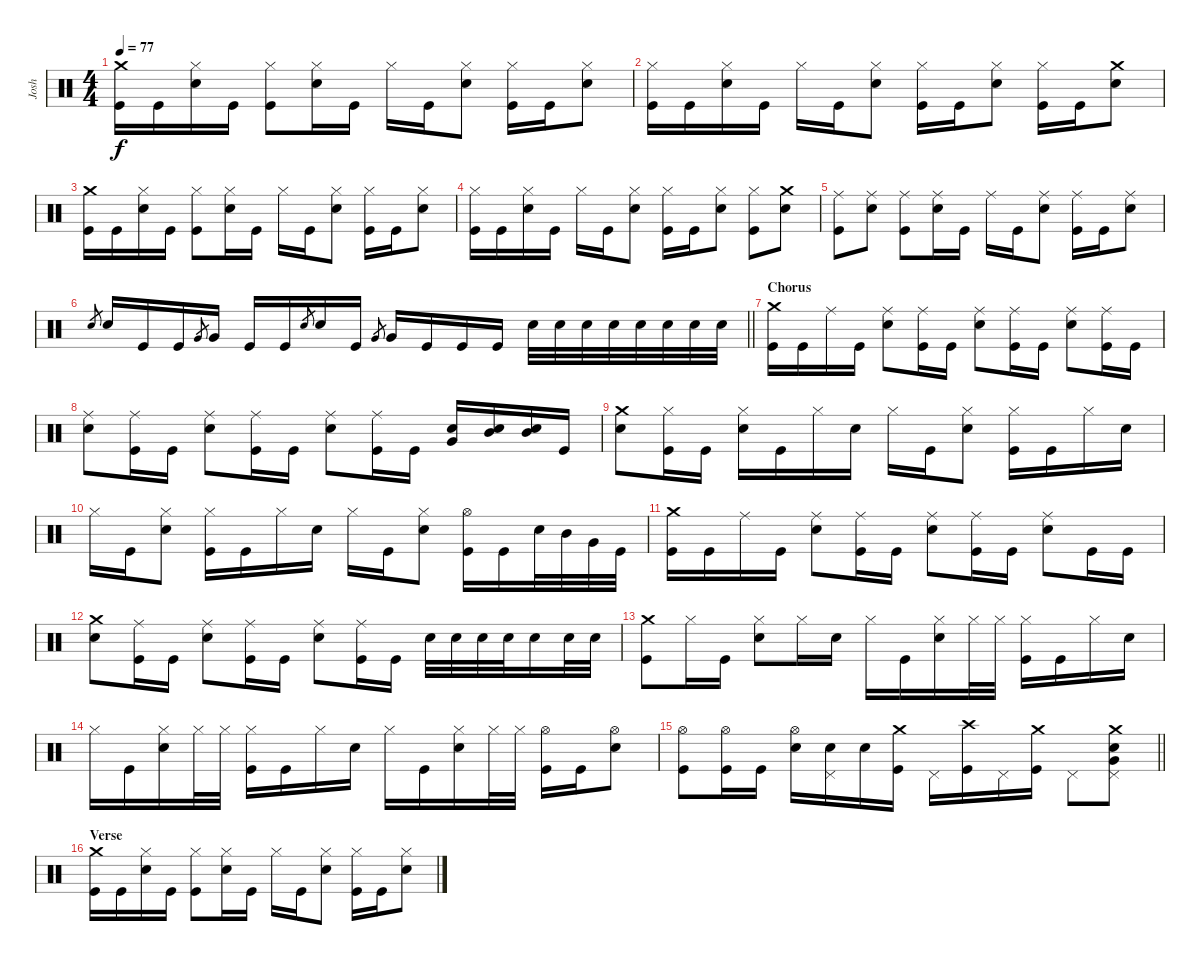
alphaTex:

\track ("Josh" "Josh") {instrument percussion}
\staff {score}
\articulation defaults
\ts (4 4)
\tempo 77
\clef neutral
\ks c
("Crash medium (hit)" "Kick (hit)").16{dy f} "Kick (hit)".16 ("Hi-Hat (closed)" "Snare (hit) 2").16 "Kick (hit)".16 ("Hi-Hat (closed)" "Kick (hit)").8 ("Hi-Hat (closed)" "Snare (hit) 2").16 "Kick (hit)".16 "Hi-Hat (closed)".16 "Kick (hit)".16 ("Hi-Hat (closed)" "Snare (hit) 2").8 ("Hi-Hat (closed)" "Kick (hit)").16 "Kick (hit)".16 ("Hi-Hat (closed)" "Snare (hit) 2").8 |
("Hi-Hat (closed)" "Kick (hit)").16 "Kick (hit)".16 ("Hi-Hat (closed)" "Snare (hit) 2").16 "Kick (hit)".16 "Hi-Hat (closed)".16 "Kick (hit)".16 ("Hi-Hat (closed)" "Snare (hit) 2").8 ("Hi-Hat (closed)" "Kick (hit)").16 "Kick (hit)".16 ("Hi-Hat (closed)" "Snare (hit) 2").8 ("Hi-Hat (closed)" "Kick (hit)").16 "Kick (hit)".16 ("Crash medium (hit)" "Snare (hit) 2").8 |
("Crash medium (hit)" "Kick (hit)").16 "Kick (hit)".16 ("Hi-Hat (closed)" "Snare (hit) 2").16 "Kick (hit)".16 ("Hi-Hat (closed)" "Kick (hit)").8 ("Hi-Hat (closed)" "Snare (hit) 2").16 "Kick (hit)".16 "Hi-Hat (closed)".16 "Kick (hit)".16 ("Hi-Hat (closed)" "Snare (hit) 2").8 ("Hi-Hat (closed)" "Kick (hit)").16 "Kick (hit)".16 ("Hi-Hat (closed)" "Snare (hit) 2").8 |
("Hi-Hat (closed)" "Kick (hit)").16 "Kick (hit)".16 ("Hi-Hat (closed)" "Snare (hit) 2").16 "Kick (hit)".16 "Hi-Hat (closed)".16 "Kick (hit)".16 ("Hi-Hat (closed)" "Snare (hit) 2").8 ("Hi-Hat (closed)" "Kick (hit)").16 "Kick (hit)".16 ("Hi-Hat (closed)" "Snare (hit) 2").8 ("Hi-Hat (closed)" "Kick (hit)").8 ("Crash medium (hit)" "Snare (hit) 2").8 |
("Ride (middle)" "Kick (hit)").8 ("Ride (middle)" "Snare (hit) 2").8 ("Ride (middle)" "Kick (hit)").8 ("Ride (middle)" "Snare (hit) 2").16 "Kick (hit)".16 "Ride (middle)".16 "Kick (hit)".16 ("Ride (middle)" "Snare (hit) 2").8 ("Ride (middle)" "Kick (hit)").16 "Kick (hit)".16 ("Ride (middle)" "Snare (hit) 2").8 |
\barLineRight lightlight "Snare (hit) 2".8{gr} "Snare (hit) 2".16 "Kick (hit)".16 "Kick (hit)".16 "Very Low Tom (hit)".8{gr} "Very Low Tom (hit)".16 "Kick (hit)".16 "Kick (hit)".16 "Snare (hit) 2".8{gr} "Snare (hit) 2".16 "Kick (hit)".16 "Very Low Tom (hit)".8{gr} "Very Low Tom (hit)".16 "Kick (hit)".16 "Kick (hit)".16 "Kick (hit)".16 "Snare (hit) 2".32 "Snare (hit) 2".32 "Snare (hit) 2".32 "Snare (hit) 2".32 "Snare (hit) 2".32 "Snare (hit) 2".32 "Snare (hit) 2".32 "Snare (hit) 2".32
|
\section ("" "Chorus")
("Crash medium (hit)" "Kick (hit)").16 "Kick (hit)".16 "Ride (middle)".16 "Kick (hit)".16 ("Ride (middle)" "Snare (hit) 2").8 ("Ride (middle)" "Kick (hit)").16 "Kick (hit)".16 ("Ride (middle)" "Snare (hit) 2").8 ("Ride (middle)" "Kick (hit)").16 "Kick (hit)".16 ("Ride (middle)" "Snare (hit) 2").8 ("Ride (middle)" "Kick (hit)").16 "Kick (hit)".16 |
("Ride (middle)" "Snare (hit) 2").8 ("Ride (middle)" "Kick (hit)").16 "Kick (hit)".16 ("Ride (middle)" "Snare (hit) 2").8 ("Ride (middle)" "Kick (hit)").16 "Kick (hit)".16 ("Ride (middle)" "Snare (hit) 2").8 ("Ride (middle)" "Kick (hit)").16 "Kick (hit)".16 ("Very Low Tom (hit)" "Snare (hit) 2").16 ("Mid Tom (hit)" "Snare (hit) 2").16 ("Mid Tom (hit)" "Snare (hit) 2").16 "Kick (hit)".16 |
("Crash medium (hit)" "Snare (hit) 2").8 ("Hi-Hat (closed)" "Kick (hit)").16 "Kick (hit)".16 ("Hi-Hat (closed)" "Snare (hit) 2").16 "Kick (hit)".16 "Hi-Hat (closed)".16 "Snare (hit) 2".16 "Hi-Hat (closed)".16 "Kick (hit)".16 ("Hi-Hat (closed)" "Snare (hit) 2").8 ("Hi-Hat (closed)" "Kick (hit)").16 "Kick (hit)".16 "Hi-Hat (closed)".16 "Snare (hit) 2".16 |
"Hi-Hat (closed)".16 "Kick (hit)".16 ("Hi-Hat (closed)" "Snare (hit) 2").8 ("Hi-Hat (closed)" "Kick (hit)").16 "Kick (hit)".16 "Hi-Hat (closed)".16 "Snare (hit) 2".16 "Hi-Hat (closed)".16 "Kick (hit)".16 ("Hi-Hat (closed)" "Snare (hit) 2").8 ("Hi-Hat (open)" "Kick (hit)").16 "Kick (hit)".16 "Snare (hit) 2".32 "Mid Tom (hit)".32 "Very Low Tom (hit)".32 "Kick (hit)".32 |
("Crash medium (hit)" "Kick (hit)").16 "Kick (hit)".16 "Ride (middle)".16 "Kick (hit)".16 ("Ride (middle)" "Snare (hit) 2").8 ("Ride (middle)" "Kick (hit)").16 "Kick (hit)".16 ("Ride (middle)" "Snare (hit) 2").8 ("Ride (middle)" "Kick (hit)").16 "Kick (hit)".16 ("Ride (middle)" "Snare (hit) 2").8 "Kick (hit)".16 "Kick (hit)".16 |
("Crash medium (hit)" "Snare (hit) 2").8 ("Ride (middle)" "Kick (hit)").16 "Kick (hit)".16 ("Ride (middle)" "Snare (hit) 2").8 ("Ride (middle)" "Kick (hit)").16 "Kick (hit)".16 ("Ride (middle)" "Snare (hit) 2").8 ("Ride (middle)" "Kick (hit)").16 "Kick (hit)".16 "Snare (hit) 2".32 "Snare (hit) 2".32 "Snare (hit) 2".32 "Snare (hit) 2".32 "Snare (hit) 2".16 "Snare (hit) 2".32 "Snare (hit) 2".32 |
("Crash medium (hit)" "Kick (hit)").8 "Hi-Hat (closed)".16 "Kick (hit)".16 ("Hi-Hat (closed)" "Snare (hit) 2").8 "Hi-Hat (closed)".16 "Snare (hit) 2".16 "Hi-Hat (closed)".16 "Kick (hit)".16 ("Hi-Hat (closed)" "Snare (hit) 2").16 "Hi-Hat (closed)".32 "Hi-Hat (closed)".32 ("Hi-Hat (closed)" "Kick (hit)").16 "Kick (hit)".16 "Hi-Hat (closed)".16 "Snare (hit) 2".16 |
"Hi-Hat (closed)".16 "Kick (hit)".16 ("Hi-Hat (closed)" "Snare (hit) 2").16 "Hi-Hat (closed)".32 "Hi-Hat (closed)".32 ("Hi-Hat (closed)" "Kick (hit)").16 "Kick (hit)".16 "Hi-Hat (closed)".16 "Snare (hit) 2".16 "Hi-Hat (closed)".16 "Kick (hit)".16 ("Hi-Hat (closed)" "Snare (hit) 2").16 "Hi-Hat (closed)".32 "Hi-Hat (closed)".32 ("Hi-Hat (open)" "Kick (hit)").16 "Kick (hit)".16 ("Hi-Hat (open)" "Snare (hit) 2").8 |
\barLineRight lightlight
("Hi-Hat (open)" "Kick (hit)").8 ("Hi-Hat (open)" "Kick (hit)").16 "Kick (hit)".16 ("Hi-Hat (open)" "Snare (hit) 2").16 ("Snare (hit) 2" "Pedal Hi-Hat (hit)").16 "Snare (hit) 2".16 ("Crash medium (hit)" "Kick (hit)").16 "Pedal Hi-Hat (hit)".16 ("Crash high (hit)" "Kick (hit)").16 "Pedal Hi-Hat (hit)".16 ("Crash medium (hit)" "Kick (hit)").16 "Pedal Hi-Hat (hit)".8 ("Crash medium (hit)" "Very Low Tom (hit)" "Snare (hit) 2" "Pedal Hi-Hat (hit)").8 |
\section ("" "Verse")
("Crash medium (hit)" "Kick (hit)").16 "Kick (hit)".16 ("Hi-Hat (closed)" "Snare (hit) 2").16 "Kick (hit)".16 ("Hi-Hat (closed)" "Kick (hit)").8 ("Hi-Hat (closed)" "Snare (hit) 2").16 "Kick (hit)".16 "Hi-Hat (closed)".16 "Kick (hit)".16 ("Hi-Hat (closed)" "Snare (hit) 2").8 ("Hi-Hat (closed)" "Kick (hit)").16 "Kick (hit)".16 ("Hi-Hat (closed)" "Snare (hit) 2").8
